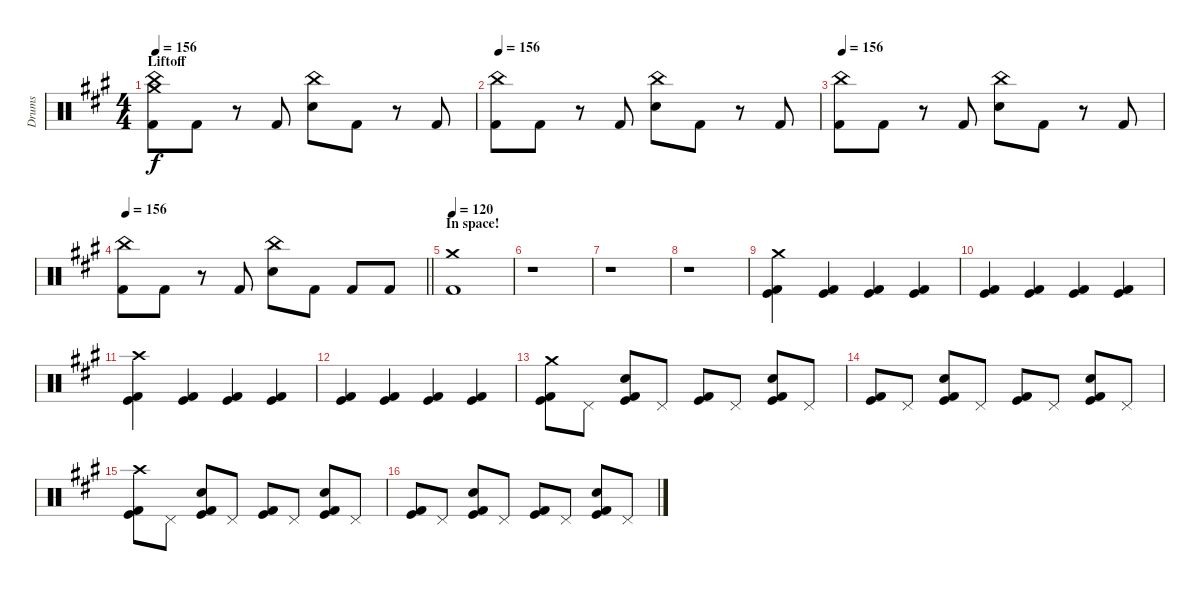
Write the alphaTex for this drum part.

\track ("Drums" "Drums") {instrument percussion}
\staff {score}
\articulation defaults
\ts (4 4)
\section ("" "Liftoff")
\tempo 156
\clef neutral
\ks f#minor
("China (hit)" "Crash medium (hit)" "Kick (hit) 2").8{dy f} "Kick (hit) 2".8 r.8 "Kick (hit) 2".8 ("China (hit)" "Snare (hit) 2").8 "Kick (hit) 2".8 r.8 "Kick (hit) 2".8 |
\tempo 156
("China (hit)" "Kick (hit) 2").8 "Kick (hit) 2".8 r.8 "Kick (hit) 2".8 ("China (hit)" "Snare (hit) 2").8 "Kick (hit) 2".8 r.8 "Kick (hit) 2".8 |
\tempo 156
("China (hit)" "Kick (hit) 2").8 "Kick (hit) 2".8 r.8 "Kick (hit) 2".8 ("China (hit)" "Snare (hit) 2").8 "Kick (hit) 2".8 r.8 "Kick (hit) 2".8 |
\tempo 156
\barLineRight lightlight
("China (hit)" "Kick (hit) 2").8 "Kick (hit) 2".8 r.8 "Kick (hit) 2".8 ("China (hit)" "Snare (hit) 2").8 "Kick (hit) 2".8 "Kick (hit) 2".8 "Kick (hit) 2".8 |
\section ("" "In space!")
\tempo 120
("Crash medium (hit)" "Kick (hit) 2").1 |
r.1 |
r.1 |
r.1 |
("Crash medium (hit)" "Kick (hit)" "Kick (hit) 2").4 ("Kick (hit)" "Kick (hit) 2").4 ("Kick (hit)" "Kick (hit) 2").4 ("Kick (hit)" "Kick (hit) 2").4 |
("Kick (hit)" "Kick (hit) 2").4 ("Kick (hit)" "Kick (hit) 2").4 ("Kick (hit)" "Kick (hit) 2").4 ("Kick (hit)" "Kick (hit) 2").4 |
("Crash high (hit)" "Kick (hit)" "Kick (hit) 2").4 ("Kick (hit)" "Kick (hit) 2").4 ("Kick (hit)" "Kick (hit) 2").4 ("Kick (hit)" "Kick (hit) 2").4 |
("Kick (hit)" "Kick (hit) 2").4 ("Kick (hit)" "Kick (hit) 2").4 ("Kick (hit)" "Kick (hit) 2").4 ("Kick (hit)" "Kick (hit) 2").4 |
("Crash medium (hit)" "Kick (hit)" "Kick (hit) 2").8 "Pedal Hi-Hat (hit)".8 ("Electric Snare (hit)" "Kick (hit)" "Kick (hit) 2").8 "Pedal Hi-Hat (hit)".8 ("Kick (hit)" "Kick (hit) 2").8 "Pedal Hi-Hat (hit)".8 ("Electric Snare (hit)" "Kick (hit)" "Kick (hit) 2").8 "Pedal Hi-Hat (hit)".8 |
("Kick (hit)" "Kick (hit) 2").8 "Pedal Hi-Hat (hit)".8 ("Electric Snare (hit)" "Kick (hit)" "Kick (hit) 2").8 "Pedal Hi-Hat (hit)".8 ("Kick (hit)" "Kick (hit) 2").8 "Pedal Hi-Hat (hit)".8 ("Electric Snare (hit)" "Kick (hit)" "Kick (hit) 2").8 "Pedal Hi-Hat (hit)".8 |
("Crash high (hit)" "Kick (hit)" "Kick (hit) 2").8 "Pedal Hi-Hat (hit)".8 ("Electric Snare (hit)" "Kick (hit)" "Kick (hit) 2").8 "Pedal Hi-Hat (hit)".8 ("Kick (hit)" "Kick (hit) 2").8 "Pedal Hi-Hat (hit)".8 ("Electric Snare (hit)" "Kick (hit)" "Kick (hit) 2").8 "Pedal Hi-Hat (hit)".8 |
("Kick (hit)" "Kick (hit) 2").8 "Pedal Hi-Hat (hit)".8 ("Electric Snare (hit)" "Kick (hit)" "Kick (hit) 2").8 "Pedal Hi-Hat (hit)".8 ("Kick (hit)" "Kick (hit) 2").8 "Pedal Hi-Hat (hit)".8 ("Electric Snare (hit)" "Kick (hit)" "Kick (hit) 2").8 "Pedal Hi-Hat (hit)".8
